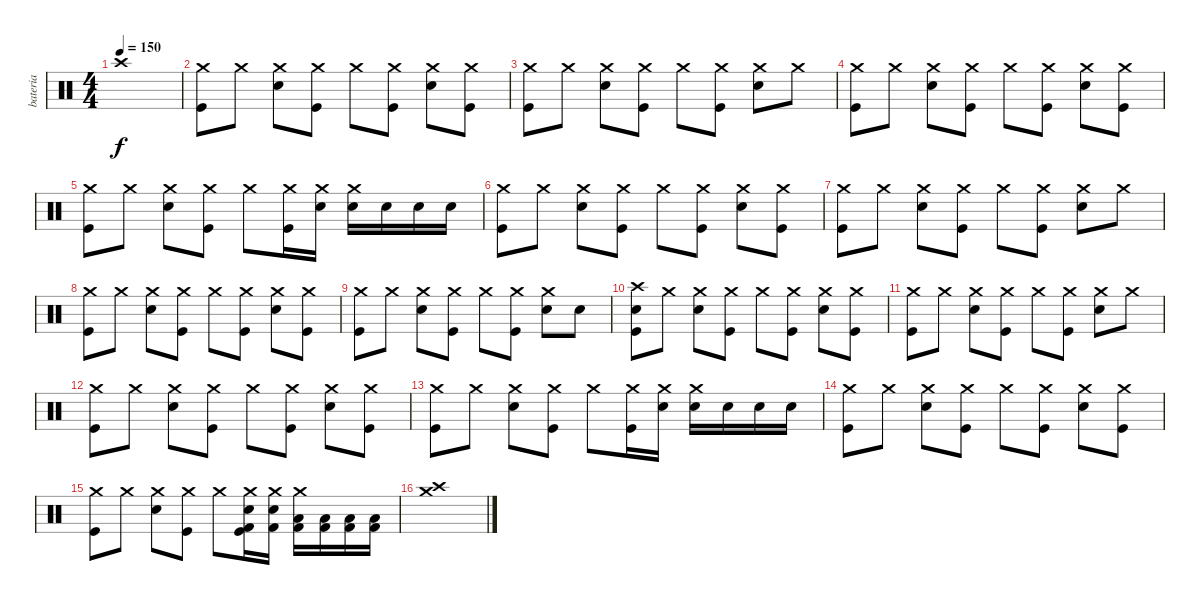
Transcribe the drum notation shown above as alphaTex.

\track ("bateria" "bateria") {instrument percussion}
\staff {score}
\articulation defaults
\ts (4 4)
\tempo 150
\clef neutral
\ks c "Crash high (hit)"{t}.1{dy f}
|
("Crash medium (hit)" "Kick (hit)").8 "Crash medium (hit)".8 ("Crash medium (hit)" "Electric Snare (hit)").8 ("Crash medium (hit)" "Kick (hit)").8 "Crash medium (hit)".8 ("Crash medium (hit)" "Kick (hit)").8 ("Crash medium (hit)" "Electric Snare (hit)").8 ("Crash medium (hit)" "Kick (hit)").8 |
("Crash medium (hit)" "Kick (hit)").8 "Crash medium (hit)".8 ("Crash medium (hit)" "Electric Snare (hit)").8 ("Crash medium (hit)" "Kick (hit)").8 "Crash medium (hit)".8 ("Crash medium (hit)" "Kick (hit)").8 ("Crash medium (hit)" "Electric Snare (hit)").8 "Crash medium (hit)".8 |
("Crash medium (hit)" "Kick (hit)").8 "Crash medium (hit)".8 ("Crash medium (hit)" "Electric Snare (hit)").8 ("Crash medium (hit)" "Kick (hit)").8 "Crash medium (hit)".8 ("Crash medium (hit)" "Kick (hit)").8 ("Crash medium (hit)" "Electric Snare (hit)").8 ("Crash medium (hit)" "Kick (hit)").8 |
("Crash medium (hit)" "Kick (hit)").8 "Crash medium (hit)".8 ("Crash medium (hit)" "Electric Snare (hit)").8 ("Crash medium (hit)" "Kick (hit)").8 "Crash medium (hit)".8 ("Crash medium (hit)" "Kick (hit)").16 ("Crash medium (hit)" "Electric Snare (hit)").16 ("Crash medium (hit)" "Electric Snare (hit)").16 "Electric Snare (hit)".16 "Electric Snare (hit)".16 "Electric Snare (hit)".16 |
("Crash medium (hit)" "Kick (hit)").8 "Crash medium (hit)".8 ("Crash medium (hit)" "Electric Snare (hit)").8 ("Crash medium (hit)" "Kick (hit)").8 "Crash medium (hit)".8 ("Crash medium (hit)" "Kick (hit)").8 ("Crash medium (hit)" "Electric Snare (hit)").8 ("Crash medium (hit)" "Kick (hit)").8 |
("Crash medium (hit)" "Kick (hit)").8 "Crash medium (hit)".8 ("Crash medium (hit)" "Electric Snare (hit)").8 ("Crash medium (hit)" "Kick (hit)").8 "Crash medium (hit)".8 ("Crash medium (hit)" "Kick (hit)").8 ("Crash medium (hit)" "Electric Snare (hit)").8 "Crash medium (hit)".8 |
("Crash medium (hit)" "Kick (hit)").8 "Crash medium (hit)".8 ("Crash medium (hit)" "Electric Snare (hit)").8 ("Crash medium (hit)" "Kick (hit)").8 "Crash medium (hit)".8 ("Crash medium (hit)" "Kick (hit)").8 ("Crash medium (hit)" "Electric Snare (hit)").8 ("Crash medium (hit)" "Kick (hit)").8 |
("Crash medium (hit)" "Kick (hit)").8 "Crash medium (hit)".8 ("Crash medium (hit)" "Electric Snare (hit)").8 ("Crash medium (hit)" "Kick (hit)").8 "Crash medium (hit)".8 ("Crash medium (hit)" "Kick (hit)").8 ("Crash medium (hit)" "Electric Snare (hit)").8 "Electric Snare (hit)".8 |
("Crash high (hit)" "Electric Snare (hit)" "Kick (hit)").8 "Crash medium (hit)".8 ("Crash medium (hit)" "Electric Snare (hit)").8 ("Crash medium (hit)" "Kick (hit)").8 "Crash medium (hit)".8 ("Crash medium (hit)" "Kick (hit)").8 ("Crash medium (hit)" "Electric Snare (hit)").8 ("Crash medium (hit)" "Kick (hit)").8 |
("Crash medium (hit)" "Kick (hit)").8 "Crash medium (hit)".8 ("Crash medium (hit)" "Electric Snare (hit)").8 ("Crash medium (hit)" "Kick (hit)").8 "Crash medium (hit)".8 ("Crash medium (hit)" "Kick (hit)").8 ("Crash medium (hit)" "Electric Snare (hit)").8 "Crash medium (hit)".8 |
("Crash medium (hit)" "Kick (hit)").8 "Crash medium (hit)".8 ("Crash medium (hit)" "Electric Snare (hit)").8 ("Crash medium (hit)" "Kick (hit)").8 "Crash medium (hit)".8 ("Crash medium (hit)" "Kick (hit)").8 ("Crash medium (hit)" "Electric Snare (hit)").8 ("Crash medium (hit)" "Kick (hit)").8 |
("Crash medium (hit)" "Kick (hit)").8 "Crash medium (hit)".8 ("Crash medium (hit)" "Electric Snare (hit)").8 ("Crash medium (hit)" "Kick (hit)").8 "Crash medium (hit)".8 ("Crash medium (hit)" "Kick (hit)").16 ("Crash medium (hit)" "Electric Snare (hit)").16 ("Crash medium (hit)" "Electric Snare (hit)").16 "Electric Snare (hit)".16 "Electric Snare (hit)".16 "Electric Snare (hit)".16 |
("Crash medium (hit)" "Kick (hit)").8 "Crash medium (hit)".8 ("Crash medium (hit)" "Electric Snare (hit)").8 ("Crash medium (hit)" "Kick (hit)").8 "Crash medium (hit)".8 ("Crash medium (hit)" "Kick (hit)").8 ("Crash medium (hit)" "Electric Snare (hit)").8 ("Crash medium (hit)" "Kick (hit)").8 |
("Crash medium (hit)" "Kick (hit)").8 "Crash medium (hit)".8 ("Crash medium (hit)" "Electric Snare (hit)").8 ("Crash medium (hit)" "Kick (hit)").8 "Crash medium (hit)".8 ("Crash medium (hit)" "Electric Snare (hit)" "Kick (hit) 2" "Kick (hit)").16 ("Crash medium (hit)" "Electric Snare (hit)" "Kick (hit) 2").16 ("Crash medium (hit)" "Low Tom (hit)" "Kick (hit) 2").16 ("Low Tom (hit)" "Kick (hit) 2").16 ("Low Floor Tom (hit)" "Kick (hit) 2").16 ("Low Floor Tom (hit)" "Kick (hit) 2").16 |
("Crash high (hit)" "Crash medium (hit)").1
